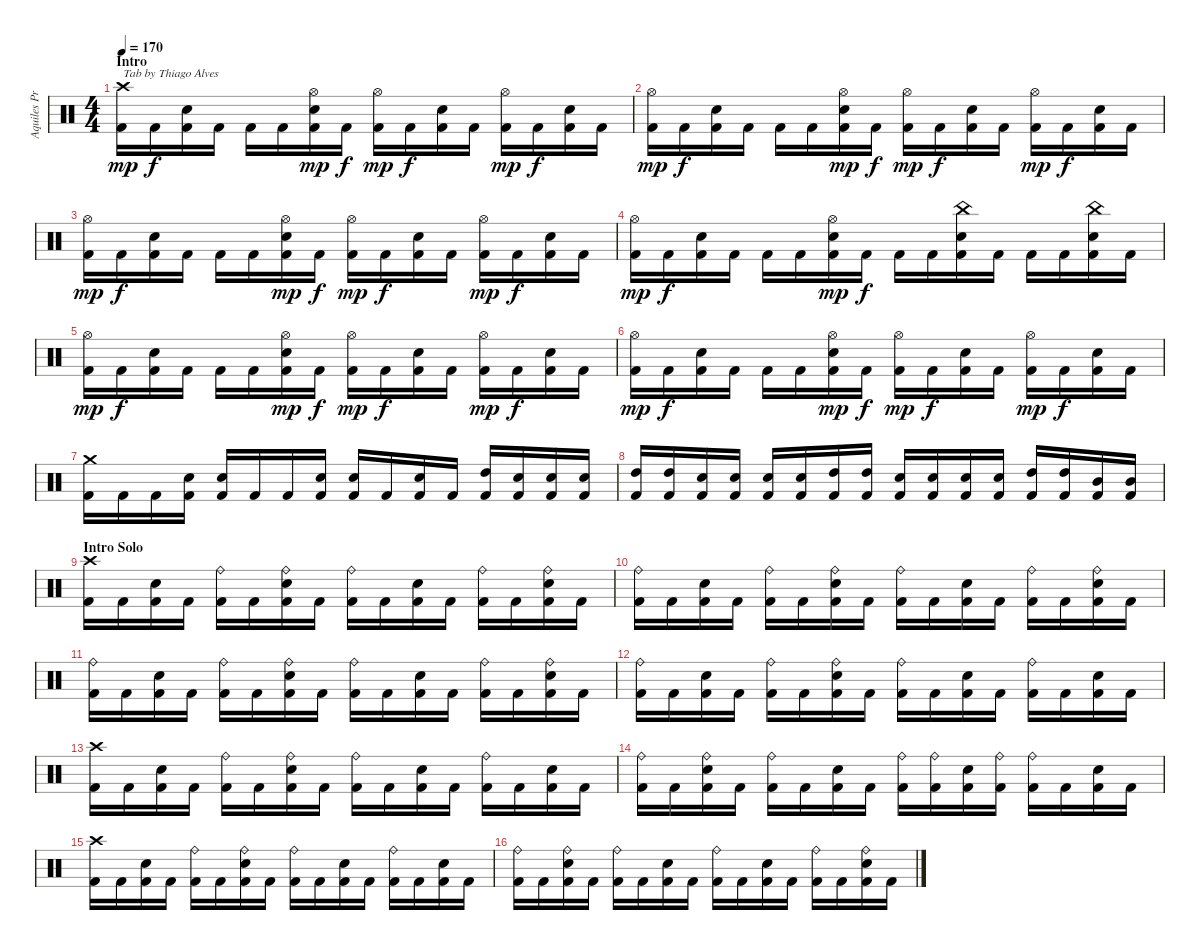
\track ("Aquiles Priester" "Aquiles Pr") {instrument percussion}
\staff {score}
\articulation defaults
\ts (4 4)
\section ("" "Intro")
\tempo 170
\clef neutral
\ks c
("Crash high (hit)" "Kick (hit) 2").16{txt "Tab by Thiago Alves" dy mp} "Kick (hit) 2".16{dy f} ("Electric Snare (hit)" "Kick (hit) 2").16 "Kick (hit) 2".16 "Kick (hit) 2".16 "Kick (hit) 2".16 ("Hi-Hat (open)" "Electric Snare (hit)" "Kick (hit) 2").16{dy mp} "Kick (hit) 2".16{dy f} ("Hi-Hat (open)" "Kick (hit) 2").16{dy mp} "Kick (hit) 2".16{dy f} ("Electric Snare (hit)" "Kick (hit) 2").16 "Kick (hit) 2".16 ("Hi-Hat (open)" "Kick (hit) 2").16{dy mp} "Kick (hit) 2".16{dy f} ("Electric Snare (hit)" "Kick (hit) 2").16 "Kick (hit) 2".16 |
("Hi-Hat (open)" "Kick (hit) 2").16{dy mp} "Kick (hit) 2".16{dy f} ("Electric Snare (hit)" "Kick (hit) 2").16 "Kick (hit) 2".16 "Kick (hit) 2".16 "Kick (hit) 2".16 ("Hi-Hat (open)" "Electric Snare (hit)" "Kick (hit) 2").16{dy mp} "Kick (hit) 2".16{dy f} ("Hi-Hat (open)" "Kick (hit) 2").16{dy mp} "Kick (hit) 2".16{dy f} ("Electric Snare (hit)" "Kick (hit) 2").16 "Kick (hit) 2".16 ("Hi-Hat (open)" "Kick (hit) 2").16{dy mp} "Kick (hit) 2".16{dy f} ("Electric Snare (hit)" "Kick (hit) 2").16 "Kick (hit) 2".16 |
("Hi-Hat (open)" "Kick (hit) 2").16{dy mp} "Kick (hit) 2".16{dy f} ("Electric Snare (hit)" "Kick (hit) 2").16 "Kick (hit) 2".16 "Kick (hit) 2".16 "Kick (hit) 2".16 ("Hi-Hat (open)" "Electric Snare (hit)" "Kick (hit) 2").16{dy mp} "Kick (hit) 2".16{dy f} ("Hi-Hat (open)" "Kick (hit) 2").16{dy mp} "Kick (hit) 2".16{dy f} ("Electric Snare (hit)" "Kick (hit) 2").16 "Kick (hit) 2".16 ("Hi-Hat (open)" "Kick (hit) 2").16{dy mp} "Kick (hit) 2".16{dy f} ("Electric Snare (hit)" "Kick (hit) 2").16 "Kick (hit) 2".16 |
("Hi-Hat (open)" "Kick (hit) 2").16{dy mp} "Kick (hit) 2".16{dy f} ("Electric Snare (hit)" "Kick (hit) 2").16 "Kick (hit) 2".16 "Kick (hit) 2".16 "Kick (hit) 2".16 ("Hi-Hat (open)" "Electric Snare (hit)" "Kick (hit) 2").16{dy mp} "Kick (hit) 2".16{dy f} "Kick (hit) 2".16 "Kick (hit) 2".16 ("China (hit)" "Electric Snare (hit)" "Kick (hit) 2").16 "Kick (hit) 2".16 "Kick (hit) 2".16 "Kick (hit) 2".16 ("China (hit)" "Electric Snare (hit)" "Kick (hit) 2").16 "Kick (hit) 2".16 |
("Hi-Hat (open)" "Kick (hit) 2").16{dy mp} "Kick (hit) 2".16{dy f} ("Electric Snare (hit)" "Kick (hit) 2").16 "Kick (hit) 2".16 "Kick (hit) 2".16 "Kick (hit) 2".16 ("Hi-Hat (open)" "Electric Snare (hit)" "Kick (hit) 2").16{dy mp} "Kick (hit) 2".16{dy f} ("Hi-Hat (open)" "Kick (hit) 2").16{dy mp} "Kick (hit) 2".16{dy f} ("Electric Snare (hit)" "Kick (hit) 2").16 "Kick (hit) 2".16 ("Hi-Hat (open)" "Kick (hit) 2").16{dy mp} "Kick (hit) 2".16{dy f} ("Electric Snare (hit)" "Kick (hit) 2").16 "Kick (hit) 2".16 |
("Hi-Hat (open)" "Kick (hit) 2").16{dy mp} "Kick (hit) 2".16{dy f} ("Electric Snare (hit)" "Kick (hit) 2").16 "Kick (hit) 2".16 "Kick (hit) 2".16 "Kick (hit) 2".16 ("Hi-Hat (open)" "Electric Snare (hit)" "Kick (hit) 2").16{dy mp} "Kick (hit) 2".16{dy f} ("Hi-Hat (open)" "Kick (hit) 2").16{dy mp} "Kick (hit) 2".16{dy f} ("Electric Snare (hit)" "Kick (hit) 2").16 "Kick (hit) 2".16 ("Hi-Hat (open)" "Kick (hit) 2").16{dy mp} "Kick (hit) 2".16{dy f} ("Electric Snare (hit)" "Kick (hit) 2").16 "Kick (hit) 2".16 |
("Crash medium (hit)" "Kick (hit) 2").16 "Kick (hit) 2".16 "Kick (hit) 2".16 ("Electric Snare (hit)" "Kick (hit) 2").16 ("Electric Snare (hit)" "Kick (hit) 2").16 "Kick (hit) 2".16 "Kick (hit) 2".16 ("Electric Snare (hit)" "Kick (hit) 2").16 ("Electric Snare (hit)" "Kick (hit) 2").16 "Kick (hit) 2".16 ("Electric Snare (hit)" "Kick (hit) 2").16 "Kick (hit) 2".16 ("High Tom (hit)" "Kick (hit) 2").16 ("Electric Snare (hit)" "Kick (hit) 2").16 ("Electric Snare (hit)" "Kick (hit) 2").16 ("Electric Snare (hit)" "Kick (hit) 2").16 |
("High Tom (hit)" "Kick (hit) 2").16 ("High Tom (hit)" "Kick (hit) 2").16 ("Electric Snare (hit)" "Kick (hit) 2").16 ("Electric Snare (hit)" "Kick (hit) 2").16 ("Electric Snare (hit)" "Kick (hit) 2").16 ("Electric Snare (hit)" "Kick (hit) 2").16 ("High Tom (hit)" "Kick (hit) 2").16 ("High Tom (hit)" "Kick (hit) 2").16 ("Electric Snare (hit)" "Kick (hit) 2").16 ("Electric Snare (hit)" "Kick (hit) 2").16 ("Electric Snare (hit)" "Kick (hit) 2").16 ("Electric Snare (hit)" "Kick (hit) 2").16 ("High Tom (hit)" "Kick (hit) 2").16 ("High Tom (hit)" "Kick (hit) 2").16 ("Mid Tom (hit)" "Kick (hit) 2").16 ("Mid Tom (hit)" "Kick (hit) 2").16 |
\section ("" "Intro Solo")
("Crash high (hit)" "Kick (hit) 2").16 "Kick (hit) 2".16 ("Electric Snare (hit)" "Kick (hit) 2").16 "Kick (hit) 2".16 ("Ride (bell)" "Kick (hit) 2").16 "Kick (hit) 2".16 ("Ride (bell)" "Electric Snare (hit)" "Kick (hit) 2").16 "Kick (hit) 2".16 ("Ride (bell)" "Kick (hit) 2").16 "Kick (hit) 2".16 ("Electric Snare (hit)" "Kick (hit) 2").16 "Kick (hit) 2".16 ("Ride (bell)" "Kick (hit) 2").16 "Kick (hit) 2".16 ("Ride (bell)" "Electric Snare (hit)" "Kick (hit) 2").16 "Kick (hit) 2".16 |
("Ride (bell)" "Kick (hit) 2").16 "Kick (hit) 2".16 ("Electric Snare (hit)" "Kick (hit) 2").16 "Kick (hit) 2".16 ("Ride (bell)" "Kick (hit) 2").16 "Kick (hit) 2".16 ("Ride (bell)" "Electric Snare (hit)" "Kick (hit) 2").16 "Kick (hit) 2".16 ("Ride (bell)" "Kick (hit) 2").16 "Kick (hit) 2".16 ("Electric Snare (hit)" "Kick (hit) 2").16 "Kick (hit) 2".16 ("Ride (bell)" "Kick (hit) 2").16 "Kick (hit) 2".16 ("Ride (bell)" "Electric Snare (hit)" "Kick (hit) 2").16 "Kick (hit) 2".16 |
("Ride (bell)" "Kick (hit) 2").16 "Kick (hit) 2".16 ("Electric Snare (hit)" "Kick (hit) 2").16 "Kick (hit) 2".16 ("Ride (bell)" "Kick (hit) 2").16 "Kick (hit) 2".16 ("Ride (bell)" "Electric Snare (hit)" "Kick (hit) 2").16 "Kick (hit) 2".16 ("Ride (bell)" "Kick (hit) 2").16 "Kick (hit) 2".16 ("Electric Snare (hit)" "Kick (hit) 2").16 "Kick (hit) 2".16 ("Ride (bell)" "Kick (hit) 2").16 "Kick (hit) 2".16 ("Ride (bell)" "Electric Snare (hit)" "Kick (hit) 2").16 "Kick (hit) 2".16 |
("Ride (bell)" "Kick (hit) 2").16 "Kick (hit) 2".16 ("Electric Snare (hit)" "Kick (hit) 2").16 "Kick (hit) 2".16 ("Ride (bell)" "Kick (hit) 2").16 "Kick (hit) 2".16 ("Ride (bell)" "Electric Snare (hit)" "Kick (hit) 2").16 "Kick (hit) 2".16 ("Ride (bell)" "Kick (hit) 2").16 "Kick (hit) 2".16 ("Electric Snare (hit)" "Kick (hit) 2").16 "Kick (hit) 2".16 ("Ride (bell)" "Kick (hit) 2").16 "Kick (hit) 2".16 ("Electric Snare (hit)" "Kick (hit) 2").16 "Kick (hit) 2".16 |
("Crash high (hit)" "Kick (hit) 2").16 "Kick (hit) 2".16 ("Electric Snare (hit)" "Kick (hit) 2").16 "Kick (hit) 2".16 ("Ride (bell)" "Kick (hit) 2").16 "Kick (hit) 2".16 ("Ride (bell)" "Electric Snare (hit)" "Kick (hit) 2").16 "Kick (hit) 2".16 ("Ride (bell)" "Kick (hit) 2").16 "Kick (hit) 2".16 ("Electric Snare (hit)" "Kick (hit) 2").16 "Kick (hit) 2".16 ("Ride (bell)" "Kick (hit) 2").16 "Kick (hit) 2".16 ("Electric Snare (hit)" "Kick (hit) 2").16 "Kick (hit) 2".16 |
("Ride (bell)" "Kick (hit) 2").16 "Kick (hit) 2".16 ("Ride (bell)" "Electric Snare (hit)" "Kick (hit) 2").16 "Kick (hit) 2".16 ("Ride (bell)" "Kick (hit) 2").16 "Kick (hit) 2".16 ("Electric Snare (hit)" "Kick (hit) 2").16 "Kick (hit) 2".16 ("Ride (bell)" "Kick (hit) 2").16 ("Ride (bell)" "Kick (hit) 2").16 ("Electric Snare (hit)" "Kick (hit) 2").16 ("Ride (bell)" "Kick (hit) 2").16 ("Ride (bell)" "Kick (hit) 2").16 "Kick (hit) 2".16 ("Electric Snare (hit)" "Kick (hit) 2").16 "Kick (hit) 2".16 |
("Crash high (hit)" "Kick (hit) 2").16 "Kick (hit) 2".16 ("Electric Snare (hit)" "Kick (hit) 2").16 "Kick (hit) 2".16 ("Ride (bell)" "Kick (hit) 2").16 "Kick (hit) 2".16 ("Ride (bell)" "Electric Snare (hit)" "Kick (hit) 2").16 "Kick (hit) 2".16 ("Ride (bell)" "Kick (hit) 2").16 "Kick (hit) 2".16 ("Electric Snare (hit)" "Kick (hit) 2").16 "Kick (hit) 2".16 ("Ride (bell)" "Kick (hit) 2").16 "Kick (hit) 2".16 ("Electric Snare (hit)" "Kick (hit) 2").16 "Kick (hit) 2".16 |
("Ride (bell)" "Kick (hit) 2").16 "Kick (hit) 2".16 ("Ride (bell)" "Electric Snare (hit)" "Kick (hit) 2").16 "Kick (hit) 2".16 ("Ride (bell)" "Kick (hit) 2").16 "Kick (hit) 2".16 ("Electric Snare (hit)" "Kick (hit) 2").16 "Kick (hit) 2".16 ("Ride (bell)" "Kick (hit) 2").16 "Kick (hit) 2".16 ("Electric Snare (hit)" "Kick (hit) 2").16 "Kick (hit) 2".16 ("Ride (bell)" "Kick (hit) 2").16 "Kick (hit) 2".16 ("Ride (bell)" "Electric Snare (hit)" "Kick (hit) 2").16 "Kick (hit) 2".16
